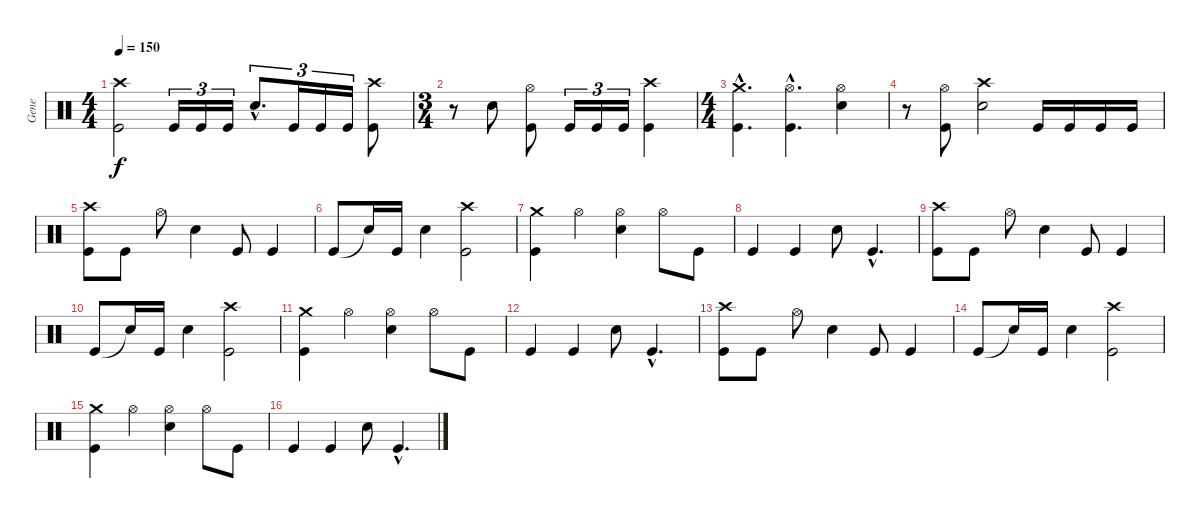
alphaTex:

\track ("Gene" "Gene") {instrument percussion}
\staff {score}
\articulation defaults
\ts (4 4)
\tempo 150
\clef neutral
\ks c
("Kick (hit)" "Crash high (hit)").2{dy f} "Kick (hit)".16{tu (3 2)} "Kick (hit)".16{tu (3 2)} "Kick (hit)".16{tu (3 2)} "Snare (hit) 2"{hac}.8{d tu (3 2)} "Kick (hit)".16{tu (3 2)} "Kick (hit)".16{tu (3 2)} "Kick (hit)".16{tu (3 2)} ("Kick (hit)" "Crash high (hit)").8 |
\ts (3 4)
r.8 "Snare (hit) 2".8 ("Kick (hit)" "Hi-Hat (open)").8 "Kick (hit)".16{tu (3 2)} "Kick (hit)".16{tu (3 2)} "Kick (hit)".16{tu (3 2)} ("Kick (hit)" "Crash high (hit)").4 |
\ts (4 4)
("Crash medium (hit)"{hac} "Kick (hit)"{hac}).4{d} ("Hi-Hat (open)"{hac} "Kick (hit)"{hac}).4{d} ("Hi-Hat (open)" "Snare (hit) 2").4 |
r.8 ("Hi-Hat (open)" "Kick (hit)").8 ("Crash high (hit)" "Snare (hit) 2").2 "Kick (hit)".16 "Kick (hit)".16 "Kick (hit)".16 "Kick (hit)".16 |
("Kick (hit)" "Crash high (hit)").8 "Kick (hit)".8 "Hi-Hat (open)".8 "Snare (hit) 2".4 "Kick (hit)".8 "Kick (hit)".4 |
"Kick (hit)".8 "Snare (hit)"{t}.16 "Kick (hit)".16 "Snare (hit) 2".4 ("Kick (hit)" "Crash high (hit)").2 |
("Kick (hit)" "Crash medium (hit)").4 "Hi-Hat (open)".4 ("Snare (hit) 2" "Hi-Hat (open)").4 "Hi-Hat (open)".8 "Kick (hit)".8 |
"Kick (hit)".4 "Kick (hit)".4 "Snare (hit) 2".8 "Kick (hit)"{hac}.4{d} |
("Kick (hit)" "Crash high (hit)").8 "Kick (hit)".8 "Hi-Hat (open)".8 "Snare (hit) 2".4 "Kick (hit)".8 "Kick (hit)".4 |
"Kick (hit)".8 "Snare (hit)"{t}.16 "Kick (hit)".16 "Snare (hit) 2".4 ("Kick (hit)" "Crash high (hit)").2 |
("Kick (hit)" "Crash medium (hit)").4 "Hi-Hat (open)".4 ("Snare (hit) 2" "Hi-Hat (open)").4 "Hi-Hat (open)".8 "Kick (hit)".8 |
"Kick (hit)".4 "Kick (hit)".4 "Snare (hit) 2".8 "Kick (hit)"{hac}.4{d} |
("Kick (hit)" "Crash high (hit)").8 "Kick (hit)".8 "Hi-Hat (open)".8 "Snare (hit) 2".4 "Kick (hit)".8 "Kick (hit)".4 |
"Kick (hit)".8 "Snare (hit)"{t}.16 "Kick (hit)".16 "Snare (hit) 2".4 ("Kick (hit)" "Crash high (hit)").2 |
("Kick (hit)" "Crash medium (hit)").4 "Hi-Hat (open)".4 ("Snare (hit) 2" "Hi-Hat (open)").4 "Hi-Hat (open)".8 "Kick (hit)".8 |
"Kick (hit)".4 "Kick (hit)".4 "Snare (hit) 2".8 "Kick (hit)"{hac}.4{d}
